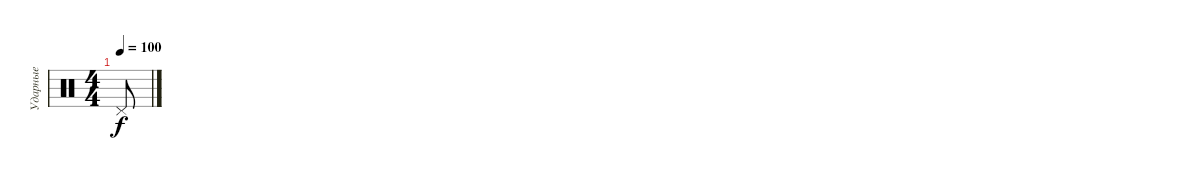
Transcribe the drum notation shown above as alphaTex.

\track ("Ударные" "Ударные") {instrument percussion}
\staff {score}
\articulation defaults
\ts (4 4)
\tempo 100
\clef neutral
\ks c "Pedal Hi-Hat (hit)".8{dy f}
